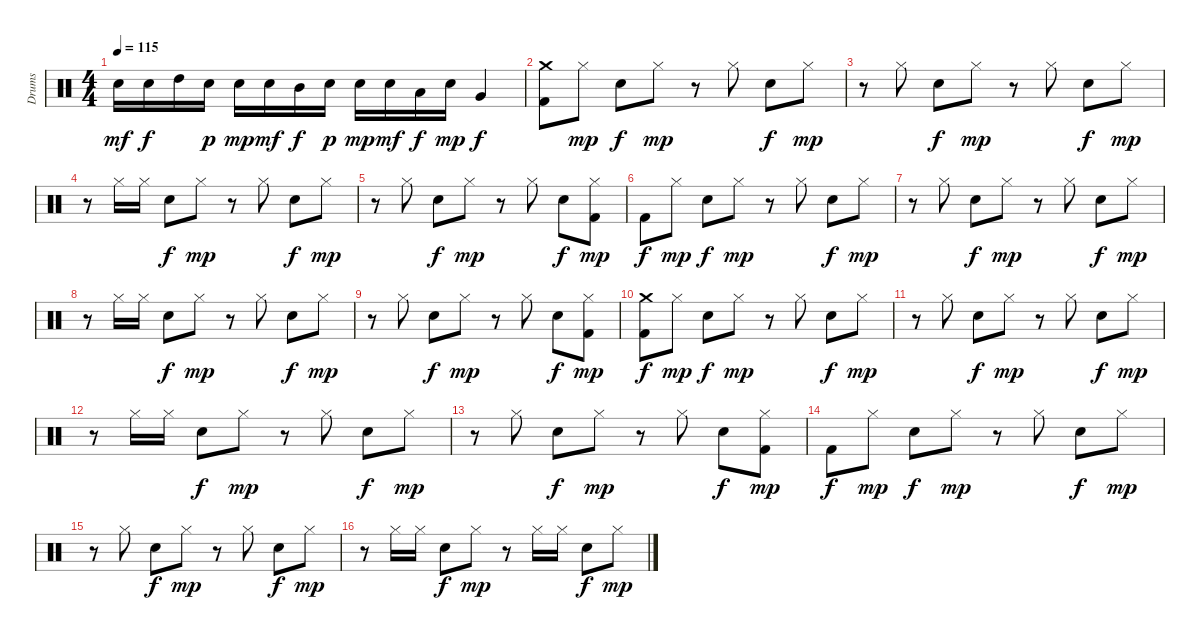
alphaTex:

\track ("Drums" "Drums") {instrument percussion}
\staff {score}
\articulation defaults
\ts (4 4)
\tempo 115
\clef neutral
\ks c "Snare (hit) 2".16{dy mf} "Snare (hit) 2".16{dy f} "High Tom (hit)".16 "Snare (hit) 2".16{dy p} "Snare (hit) 2".16{dy mp} "Snare (hit) 2".16{dy mf} "Mid Tom (hit)".16{dy f} "Snare (hit) 2".16{dy p} "Snare (hit) 2".16{dy mp} "Snare (hit) 2".16{dy mf} "Low Tom (hit)".16{dy f} "Snare (hit) 2".16{dy mp} "Very Low Tom (hit)".4{dy f}
|
("Crash medium (hit)" "Kick (hit) 2").8 "Hi-Hat (closed)".8{dy mp} "Snare (hit) 2".8{dy f} "Hi-Hat (closed)".8{dy mp} r.8 "Hi-Hat (closed)".8 "Snare (hit) 2".8{dy f} "Hi-Hat (closed)".8{dy mp} |
r.8 "Hi-Hat (closed)".8 "Snare (hit) 2".8{dy f} "Hi-Hat (closed)".8{dy mp} r.8 "Hi-Hat (closed)".8 "Snare (hit) 2".8{dy f} "Hi-Hat (closed)".8{dy mp} |
r.8 "Hi-Hat (closed)".16 "Hi-Hat (closed)".16 "Snare (hit) 2".8{dy f} "Hi-Hat (closed)".8{dy mp} r.8 "Hi-Hat (closed)".8 "Snare (hit) 2".8{dy f} "Hi-Hat (closed)".8{dy mp} |
r.8 "Hi-Hat (closed)".8 "Snare (hit) 2".8{dy f} "Hi-Hat (closed)".8{dy mp} r.8 "Hi-Hat (closed)".8 "Snare (hit) 2".8{dy f} ("Hi-Hat (closed)" "Kick (hit) 2").8{dy mp} |
"Kick (hit) 2".8{dy f} "Hi-Hat (closed)".8{dy mp} "Snare (hit) 2".8{dy f} "Hi-Hat (closed)".8{dy mp} r.8 "Hi-Hat (closed)".8 "Snare (hit) 2".8{dy f} "Hi-Hat (closed)".8{dy mp} |
r.8 "Hi-Hat (closed)".8 "Snare (hit) 2".8{dy f} "Hi-Hat (closed)".8{dy mp} r.8 "Hi-Hat (closed)".8 "Snare (hit) 2".8{dy f} "Hi-Hat (closed)".8{dy mp} |
r.8 "Hi-Hat (closed)".16 "Hi-Hat (closed)".16 "Snare (hit) 2".8{dy f} "Hi-Hat (closed)".8{dy mp} r.8 "Hi-Hat (closed)".8 "Snare (hit) 2".8{dy f} "Hi-Hat (closed)".8{dy mp} |
r.8 "Hi-Hat (closed)".8 "Snare (hit) 2".8{dy f} "Hi-Hat (closed)".8{dy mp} r.8 "Hi-Hat (closed)".8 "Snare (hit) 2".8{dy f} ("Hi-Hat (closed)" "Kick (hit) 2").8{dy mp} |
("Crash medium (hit)" "Kick (hit) 2").8{dy f} "Hi-Hat (closed)".8{dy mp} "Snare (hit) 2".8{dy f} "Hi-Hat (closed)".8{dy mp} r.8 "Hi-Hat (closed)".8 "Snare (hit) 2".8{dy f} "Hi-Hat (closed)".8{dy mp} |
r.8 "Hi-Hat (closed)".8 "Snare (hit) 2".8{dy f} "Hi-Hat (closed)".8{dy mp} r.8 "Hi-Hat (closed)".8 "Snare (hit) 2".8{dy f} "Hi-Hat (closed)".8{dy mp} |
r.8 "Hi-Hat (closed)".16 "Hi-Hat (closed)".16 "Snare (hit) 2".8{dy f} "Hi-Hat (closed)".8{dy mp} r.8 "Hi-Hat (closed)".8 "Snare (hit) 2".8{dy f} "Hi-Hat (closed)".8{dy mp} |
r.8 "Hi-Hat (closed)".8 "Snare (hit) 2".8{dy f} "Hi-Hat (closed)".8{dy mp} r.8 "Hi-Hat (closed)".8 "Snare (hit) 2".8{dy f} ("Hi-Hat (closed)" "Kick (hit) 2").8{dy mp} |
"Kick (hit) 2".8{dy f} "Hi-Hat (closed)".8{dy mp} "Snare (hit) 2".8{dy f} "Hi-Hat (closed)".8{dy mp} r.8 "Hi-Hat (closed)".8 "Snare (hit) 2".8{dy f} "Hi-Hat (closed)".8{dy mp} |
r.8 "Hi-Hat (closed)".8 "Snare (hit) 2".8{dy f} "Hi-Hat (closed)".8{dy mp} r.8 "Hi-Hat (closed)".8 "Snare (hit) 2".8{dy f} "Hi-Hat (closed)".8{dy mp} |
r.8 "Hi-Hat (closed)".16 "Hi-Hat (closed)".16 "Snare (hit) 2".8{dy f} "Hi-Hat (closed)".8{dy mp} r.8 "Hi-Hat (closed)".16 "Hi-Hat (closed)".16 "Snare (hit) 2".8{dy f} "Hi-Hat (closed)".8{dy mp}
